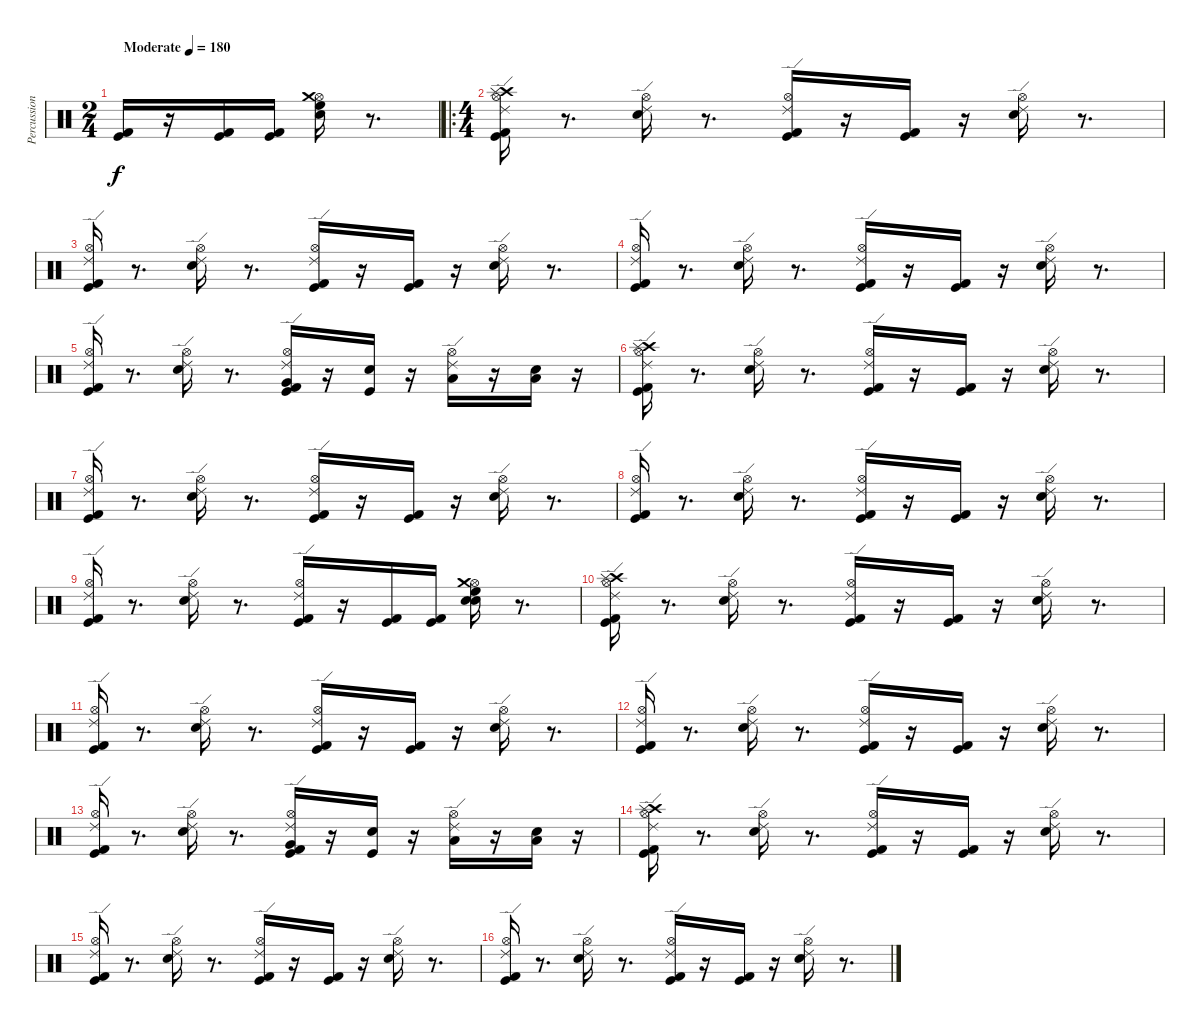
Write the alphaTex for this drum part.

\track ("Percussion" "Percussion") {instrument percussion}
\staff {score}
\articulation defaults
\ts (2 4)
\tempo (180 "Moderate")
\clef neutral
\ks c
("Kick (hit)" "Kick (hit) 2").16{dy f} r.16 ("Kick (hit)" "Kick (hit) 2").16 ("Kick (hit)" "Kick (hit) 2").16 ("Hi-Hat (open)" "Crash medium (hit)" "Snare (hit) 2" "High Floor Tom (hit)").16 r.8{d} |
\ro
\ts (4 4)
("Crash high (hit)" "Kick (hit) 2" "Hi-Hat (open)" "Kick (hit)" "Ride (edge) 2" "Splash (hit)").16 r.8{d} ("Electric Snare (hit)" "Hi-Hat (open)" "Ride (edge) 2").16 r.8{d} ("Kick (hit)" "Hi-Hat (open)" "Kick (hit) 2" "Ride (edge) 2").16 r.16 ("Kick (hit) 2" "Kick (hit)").16 r.16 ("Electric Snare (hit)" "Hi-Hat (open)" "Ride (edge) 2").16 r.8{d} |
("Hi-Hat (open)" "Ride (edge) 2" "Kick (hit) 2" "Kick (hit)").16 r.8{d} ("Electric Snare (hit)" "Hi-Hat (open)" "Ride (edge) 2").16 r.8{d} ("Hi-Hat (open)" "Ride (edge) 2" "Kick (hit)" "Kick (hit) 2").16 r.16 ("Kick (hit) 2" "Kick (hit)").16 r.16 ("Electric Snare (hit)" "Hi-Hat (open)" "Ride (edge) 2").16 r.8{d} |
("Hi-Hat (open)" "Ride (edge) 2" "Kick (hit) 2" "Kick (hit)").16 r.8{d} ("Electric Snare (hit)" "Hi-Hat (open)" "Ride (edge) 2").16 r.8{d} ("Hi-Hat (open)" "Ride (edge) 2" "Kick (hit)" "Kick (hit) 2").16 r.16 ("Kick (hit) 2" "Kick (hit)").16 r.16 ("Electric Snare (hit)" "Hi-Hat (open)" "Ride (edge) 2").16 r.8{d} |
("Kick (hit) 2" "Hi-Hat (open)" "Kick (hit)" "Ride (edge) 2").16 r.8{d} ("Electric Snare (hit)" "Hi-Hat (open)" "Ride (edge) 2").16 r.8{d} ("Kick (hit) 2" "Hi-Hat (open)" "Very Low Tom (hit)" "Kick (hit)" "Ride (edge) 2").16 r.16 ("Snare (hit) 2" "Kick (hit)").16 r.16 ("Hi-Hat (open)" "Low Floor Tom (hit)" "Ride (edge) 2").16 r.16 ("Low Floor Tom (hit)" "Snare (hit) 2").16 r.16 |
("Crash high (hit)" "Hi-Hat (open)" "Ride (edge) 2" "Splash (hit)" "Kick (hit) 2" "Kick (hit)").16 r.8{d} ("Electric Snare (hit)" "Hi-Hat (open)" "Ride (edge) 2").16 r.8{d} ("Hi-Hat (open)" "Ride (edge) 2" "Kick (hit)" "Kick (hit) 2").16 r.16 ("Kick (hit) 2" "Kick (hit)").16 r.16 ("Electric Snare (hit)" "Hi-Hat (open)" "Ride (edge) 2").16 r.8{d} |
("Hi-Hat (open)" "Ride (edge) 2" "Kick (hit) 2" "Kick (hit)").16 r.8{d} ("Electric Snare (hit)" "Hi-Hat (open)" "Ride (edge) 2").16 r.8{d} ("Hi-Hat (open)" "Ride (edge) 2" "Kick (hit)" "Kick (hit) 2").16 r.16 ("Kick (hit) 2" "Kick (hit)").16 r.16 ("Electric Snare (hit)" "Hi-Hat (open)" "Ride (edge) 2").16 r.8{d} |
("Hi-Hat (open)" "Ride (edge) 2" "Kick (hit) 2" "Kick (hit)").16 r.8{d} ("Electric Snare (hit)" "Hi-Hat (open)" "Ride (edge) 2").16 r.8{d} ("Hi-Hat (open)" "Ride (edge) 2" "Kick (hit)" "Kick (hit) 2").16 r.16 ("Kick (hit) 2" "Kick (hit)").16 r.16 ("Electric Snare (hit)" "Hi-Hat (open)" "Ride (edge) 2").16 r.8{d} |
("Kick (hit) 2" "Hi-Hat (open)" "Kick (hit)" "Ride (edge) 2").16 r.8{d} ("Electric Snare (hit)" "Hi-Hat (open)" "Ride (edge) 2").16 r.8{d} ("Hi-Hat (open)" "Ride (edge) 2" "Kick (hit)" "Kick (hit) 2").16 r.16 ("Kick (hit)" "Kick (hit) 2").16 ("Kick (hit)" "Kick (hit) 2").16 ("Electric Snare (hit)" "Hi-Hat (open)" "Crash medium (hit)" "Snare (hit) 2" "High Floor Tom (hit)").16 r.8{d} |
("Crash high (hit)" "Kick (hit) 2" "Hi-Hat (open)" "Kick (hit)" "Ride (edge) 2" "Splash (hit)").16 r.8{d} ("Electric Snare (hit)" "Hi-Hat (open)" "Ride (edge) 2").16 r.8{d} ("Kick (hit)" "Hi-Hat (open)" "Kick (hit) 2" "Ride (edge) 2").16 r.16 ("Kick (hit) 2" "Kick (hit)").16 r.16 ("Electric Snare (hit)" "Hi-Hat (open)" "Ride (edge) 2").16 r.8{d} |
("Hi-Hat (open)" "Ride (edge) 2" "Kick (hit) 2" "Kick (hit)").16 r.8{d} ("Electric Snare (hit)" "Hi-Hat (open)" "Ride (edge) 2").16 r.8{d} ("Hi-Hat (open)" "Ride (edge) 2" "Kick (hit)" "Kick (hit) 2").16 r.16 ("Kick (hit) 2" "Kick (hit)").16 r.16 ("Electric Snare (hit)" "Hi-Hat (open)" "Ride (edge) 2").16 r.8{d} |
("Hi-Hat (open)" "Ride (edge) 2" "Kick (hit) 2" "Kick (hit)").16 r.8{d} ("Electric Snare (hit)" "Hi-Hat (open)" "Ride (edge) 2").16 r.8{d} ("Hi-Hat (open)" "Ride (edge) 2" "Kick (hit)" "Kick (hit) 2").16 r.16 ("Kick (hit) 2" "Kick (hit)").16 r.16 ("Electric Snare (hit)" "Hi-Hat (open)" "Ride (edge) 2").16 r.8{d} |
("Kick (hit) 2" "Hi-Hat (open)" "Kick (hit)" "Ride (edge) 2").16 r.8{d} ("Electric Snare (hit)" "Hi-Hat (open)" "Ride (edge) 2").16 r.8{d} ("Kick (hit) 2" "Hi-Hat (open)" "Very Low Tom (hit)" "Kick (hit)" "Ride (edge) 2").16 r.16 ("Snare (hit) 2" "Kick (hit)").16 r.16 ("Hi-Hat (open)" "Low Floor Tom (hit)" "Ride (edge) 2").16 r.16 ("Low Floor Tom (hit)" "Snare (hit) 2").16 r.16 |
("Crash high (hit)" "Kick (hit) 2" "Kick (hit)" "Hi-Hat (open)" "Ride (edge) 2" "Splash (hit)").16 r.8{d} ("Electric Snare (hit)" "Hi-Hat (open)" "Ride (edge) 2").16 r.8{d} ("Kick (hit)" "Kick (hit) 2" "Hi-Hat (open)" "Ride (edge) 2").16 r.16 ("Kick (hit) 2" "Kick (hit)").16 r.16 ("Electric Snare (hit)" "Hi-Hat (open)" "Ride (edge) 2").16 r.8{d} |
("Hi-Hat (open)" "Ride (edge) 2" "Kick (hit) 2" "Kick (hit)").16 r.8{d} ("Electric Snare (hit)" "Hi-Hat (open)" "Ride (edge) 2").16 r.8{d} ("Hi-Hat (open)" "Ride (edge) 2" "Kick (hit)" "Kick (hit) 2").16 r.16 ("Kick (hit) 2" "Kick (hit)").16 r.16 ("Electric Snare (hit)" "Hi-Hat (open)" "Ride (edge) 2").16 r.8{d} |
("Hi-Hat (open)" "Ride (edge) 2" "Kick (hit) 2" "Kick (hit)").16 r.8{d} ("Electric Snare (hit)" "Hi-Hat (open)" "Ride (edge) 2").16 r.8{d} ("Hi-Hat (open)" "Ride (edge) 2" "Kick (hit)" "Kick (hit) 2").16 r.16 ("Kick (hit) 2" "Kick (hit)").16 r.16 ("Electric Snare (hit)" "Hi-Hat (open)" "Ride (edge) 2").16 r.8{d}
